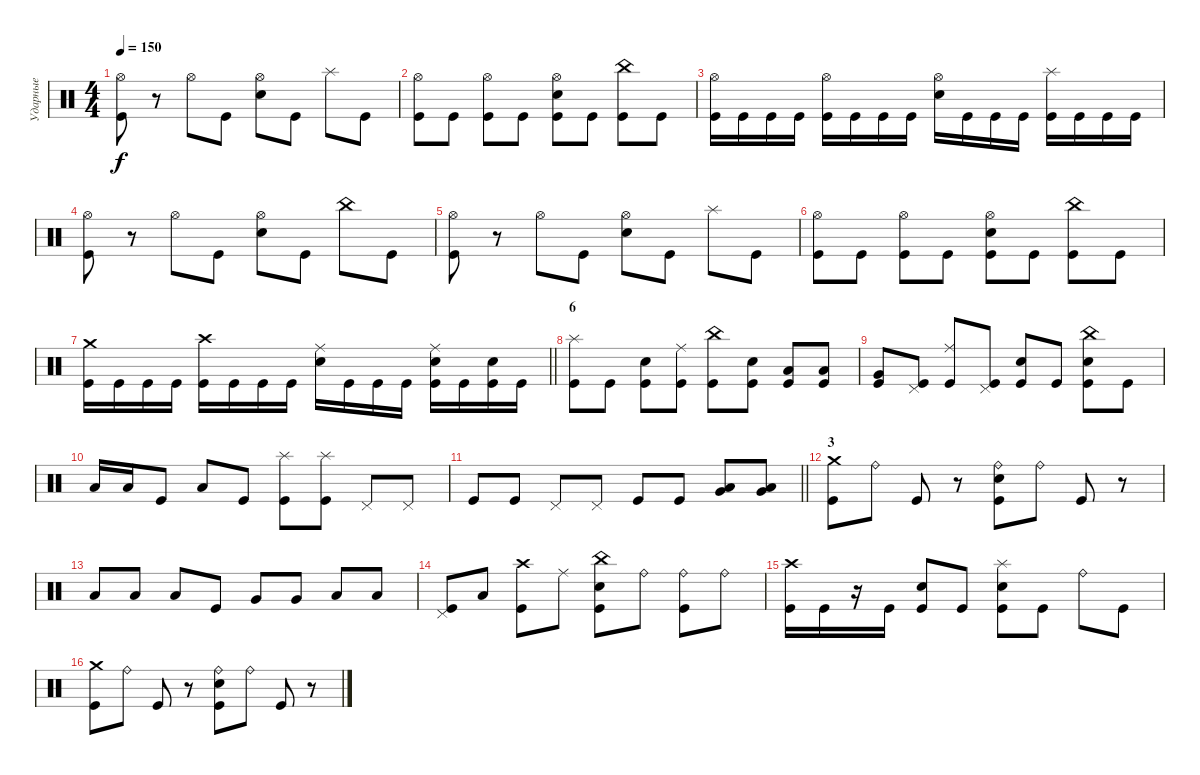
\track ("Ударные" "Ударные") {instrument percussion}
\staff {score}
\articulation defaults
\ts (4 4)
\tempo 150
\clef neutral
\ks c
("Hi-Hat (open)" "Kick (hit)").8{dy f} r.8 "Hi-Hat (open)".8 "Kick (hit)".8 ("Hi-Hat (open)" "Electric Snare (hit)").8 "Kick (hit)".8 "Splash (hit)".8 "Kick (hit)".8 |
("Hi-Hat (open)" "Kick (hit)").8 "Kick (hit)".8 ("Hi-Hat (open)" "Kick (hit)").8 "Kick (hit)".8 ("Hi-Hat (open)" "Electric Snare (hit)" "Kick (hit)").8 "Kick (hit)".8 ("China (hit)" "Kick (hit)").8 "Kick (hit)".8 |
("Hi-Hat (open)" "Kick (hit)").16 "Kick (hit)".16 "Kick (hit)".16 "Kick (hit)".16 ("Hi-Hat (open)" "Kick (hit)").16 "Kick (hit)".16 "Kick (hit)".16 "Kick (hit)".16 ("Hi-Hat (open)" "Electric Snare (hit)").16 "Kick (hit)".16 "Kick (hit)".16 "Kick (hit)".16 ("Splash (hit)" "Kick (hit)").16 "Kick (hit)".16 "Kick (hit)".16 "Kick (hit)".16 |
("Hi-Hat (open)" "Kick (hit)").8 r.8 "Hi-Hat (open)".8 "Kick (hit)".8 ("Hi-Hat (open)" "Electric Snare (hit)").8 "Kick (hit)".8 "China (hit)".8 "Kick (hit)".8 |
("Hi-Hat (open)" "Kick (hit)").8 r.8 "Hi-Hat (open)".8 "Kick (hit)".8 ("Hi-Hat (open)" "Electric Snare (hit)").8 "Kick (hit)".8 "Splash (hit)".8 "Kick (hit)".8 |
("Hi-Hat (open)" "Kick (hit)").8 "Kick (hit)".8 ("Hi-Hat (open)" "Kick (hit)").8 "Kick (hit)".8 ("Hi-Hat (open)" "Electric Snare (hit)" "Kick (hit)").8 "Kick (hit)".8 ("China (hit)" "Kick (hit)").8 "Kick (hit)".8 |
\barLineRight lightlight
("Crash medium (hit)" "Kick (hit)").16 "Kick (hit)".16 "Kick (hit)".16 "Kick (hit)".16 ("Crash high (hit)" "Kick (hit)").16 "Kick (hit)".16 "Kick (hit)".16 "Kick (hit)".16 ("Ride (middle)" "Electric Snare (hit)").16 "Kick (hit)".16 "Kick (hit)".16 "Kick (hit)".16 ("Ride (middle)" "Electric Snare (hit)" "Kick (hit)").16 "Kick (hit)".16 ("Electric Snare (hit)" "Kick (hit)").16 "Kick (hit)".16 |
\section ("" "6")
("Splash (hit)" "Kick (hit)").8 "Kick (hit)".8 ("Electric Snare (hit)" "Kick (hit)").8 ("Ride (middle)" "Kick (hit)").8 ("China (hit)" "Kick (hit)").8 ("Electric Snare (hit)" "Kick (hit)").8 ("Low Tom (hit)" "Kick (hit)").8 ("Low Tom (hit)" "Kick (hit)").8 |
("Very Low Tom (hit)" "Kick (hit)").8 ("Pedal Hi-Hat (hit)" "Kick (hit)").8 ("Ride (middle)" "Kick (hit)").8 ("Pedal Hi-Hat (hit)" "Kick (hit)").8 ("Electric Snare (hit)" "Kick (hit)").8 "Kick (hit)".8 ("China (hit)" "Electric Snare (hit)" "Kick (hit)").8 "Kick (hit)".8 |
"Low Tom (hit)".16 "Low Tom (hit)".16 "Kick (hit)".8 "Low Floor Tom (hit)".8 "Kick (hit)".8 ("Splash (hit)" "Kick (hit)").8 ("Splash (hit)" "Kick (hit)").8 "Pedal Hi-Hat (hit)".8 "Pedal Hi-Hat (hit)".8 |
\barLineRight lightlight "Kick (hit)".8 "Kick (hit)".8 "Pedal Hi-Hat (hit)".8 "Pedal Hi-Hat (hit)".8 "Kick (hit)".8 "Kick (hit)".8
("Very Low Tom (hit)" "Low Floor Tom (hit)").8 ("Very Low Tom (hit)" "Low Floor Tom (hit)").8 |
\section ("" "3")
("Crash medium (hit)" "Kick (hit)").8 "Ride (bell)".8 "Kick (hit)".8 r.8 ("Ride (bell)" "Electric Snare (hit)" "Kick (hit)").8 "Ride (bell)".8 "Kick (hit)".8 r.8 |
"Low Tom (hit)".8 "Low Tom (hit)".8 "Low Tom (hit)".8 "Kick (hit)".8 "Very Low Tom (hit)".8 "Very Low Tom (hit)".8 "Low Floor Tom (hit)".8 "Low Floor Tom (hit)".8 |
("Pedal Hi-Hat (hit)" "Kick (hit)").8 "Low Tom (hit)".8 ("Crash high (hit)" "Kick (hit)").8 "Ride (middle)".8 ("China (hit)" "Electric Snare (hit)" "Kick (hit)").8 "Ride (bell)".8 ("Ride (bell)" "Kick (hit)").8 "Ride (bell)".8 |
("Crash high (hit)" "Kick (hit)").16 "Kick (hit)".16 r.16 "Kick (hit)".16 ("Electric Snare (hit)" "Kick (hit)").8 "Kick (hit)".8 ("Splash (hit)" "Electric Snare (hit)" "Kick (hit)").8 "Kick (hit)".8 "Ride (bell)".8 "Kick (hit)".8 |
("Crash medium (hit)" "Kick (hit)").8 "Ride (bell)".8 "Kick (hit)".8 r.8 ("Ride (bell)" "Electric Snare (hit)" "Kick (hit)").8 "Ride (bell)".8 "Kick (hit)".8 r.8
